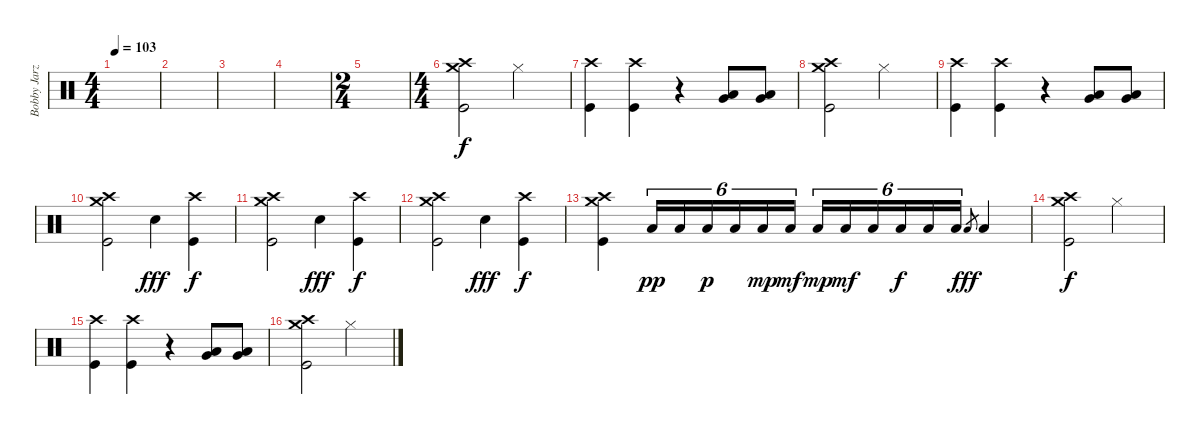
\track ("Bobby Jarzombek" "Bobby Jarz") {instrument percussion}
\staff {score}
\articulation defaults
\ts (4 4)
\tempo 103
\clef neutral
\ks c
|
|
|
|
\ts (2 4)
|
\ts (4 4)
("Crash high (hit)" "Crash medium (hit)" "Kick (hit)").2 "Hi-Hat (closed)".2 |
("Crash high (hit)" "Kick (hit)").4 ("Crash high (hit)" "Kick (hit)").4 r.4 ("Very Low Tom (hit)" "Low Tom (hit)").8 ("Very Low Tom (hit)" "Low Tom (hit)").8 |
("Crash high (hit)" "Crash medium (hit)" "Kick (hit)").2 "Hi-Hat (closed)".2 |
("Crash high (hit)" "Kick (hit)").4 ("Crash high (hit)" "Kick (hit)").4 r.4 ("Very Low Tom (hit)" "Low Tom (hit)").8 ("Very Low Tom (hit)" "Low Tom (hit)").8 |
("Crash high (hit)" "Crash medium (hit)" "Kick (hit)").2 "Electric Snare (hit)".4{dy fff} ("Crash high (hit)" "Kick (hit)").4{dy f} |
("Crash high (hit)" "Crash medium (hit)" "Kick (hit)").2 "Electric Snare (hit)".4{dy fff} ("Crash high (hit)" "Kick (hit)").4{dy f} |
("Crash high (hit)" "Crash medium (hit)" "Kick (hit)").2 "Electric Snare (hit)".4{dy fff} ("Crash high (hit)" "Kick (hit)").4{dy f} |
("Crash high (hit)" "Crash medium (hit)" "Kick (hit)").4 "Low Tom (hit)".16{tu (6 4) dy pp} "Low Tom (hit)".16{tu (6 4)} "Low Tom (hit)".16{tu (6 4) dy p} "Low Tom (hit)".16{tu (6 4)} "Low Tom (hit)".16{tu (6 4) dy mp} "Low Tom (hit)".16{tu (6 4) dy mf} "Low Tom (hit)".16{tu (6 4) dy mp} "Low Tom (hit)".16{tu (6 4) dy mf} "Low Tom (hit)".16{tu (6 4)} "Low Tom (hit)".16{tu (6 4) dy f} "Low Tom (hit)".16{tu (6 4)} "Low Tom (hit)".16{tu (6 4)} "Low Tom (hit)".8{gr dy fff} "Low Tom (hit)".4 |
("Crash high (hit)" "Crash medium (hit)" "Kick (hit)").2{dy f} "Hi-Hat (closed)".2 |
("Crash high (hit)" "Kick (hit)").4 ("Crash high (hit)" "Kick (hit)").4 r.4 ("Very Low Tom (hit)" "Low Tom (hit)").8 ("Very Low Tom (hit)" "Low Tom (hit)").8 |
("Crash high (hit)" "Crash medium (hit)" "Kick (hit)").2 "Hi-Hat (closed)".2
